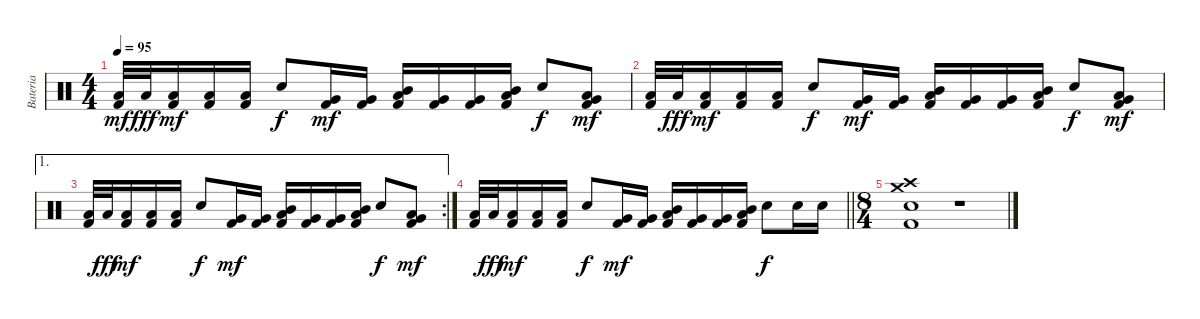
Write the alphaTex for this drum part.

\track ("Bateria" "Bateria") {instrument percussion}
\staff {score}
\articulation defaults
\ts (4 4)
\tempo 95
\clef neutral
\ks c
("Low Floor Tom (hit)" "Kick (hit) 2").32{dy mf} "Low Floor Tom (hit)".32{dy fff} ("Low Floor Tom (hit)" "Kick (hit) 2").16{dy mf} ("Low Floor Tom (hit)" "Kick (hit) 2").16 ("Low Floor Tom (hit)" "Kick (hit) 2").16 "Snare (hit) 2".8{dy f} ("Very Low Tom (hit)" "Kick (hit) 2").16{dy mf} ("Very Low Tom (hit)" "Kick (hit) 2").16 ("Mid Tom (hit)" "Low Tom (hit)" "Kick (hit) 2").16 ("Very Low Tom (hit)" "Kick (hit) 2").16 ("Very Low Tom (hit)" "Kick (hit) 2").16 ("Mid Tom (hit)" "Low Tom (hit)" "Kick (hit) 2").16 "Snare (hit) 2".8{dy f} ("Very Low Tom (hit)" "Low Floor Tom (hit)" "Kick (hit) 2").8{dy mf} |
("Low Floor Tom (hit)" "Kick (hit) 2").32 "Low Floor Tom (hit)".32{dy fff} ("Low Floor Tom (hit)" "Kick (hit) 2").16{dy mf} ("Low Floor Tom (hit)" "Kick (hit) 2").16 ("Low Floor Tom (hit)" "Kick (hit) 2").16 "Snare (hit) 2".8{dy f} ("Very Low Tom (hit)" "Kick (hit) 2").16{dy mf} ("Very Low Tom (hit)" "Kick (hit) 2").16 ("Mid Tom (hit)" "Low Tom (hit)" "Kick (hit) 2").16 ("Very Low Tom (hit)" "Kick (hit) 2").16 ("Very Low Tom (hit)" "Kick (hit) 2").16 ("Mid Tom (hit)" "Low Tom (hit)" "Kick (hit) 2").16 "Snare (hit) 2".8{dy f} ("Very Low Tom (hit)" "Low Floor Tom (hit)" "Kick (hit) 2").8{dy mf} |
\ae 1
\rc 2
("Low Floor Tom (hit)" "Kick (hit) 2").32 "Low Floor Tom (hit)".32{dy fff} ("Low Floor Tom (hit)" "Kick (hit) 2").16{dy mf} ("Low Floor Tom (hit)" "Kick (hit) 2").16 ("Low Floor Tom (hit)" "Kick (hit) 2").16 "Snare (hit) 2".8{dy f} ("Very Low Tom (hit)" "Kick (hit) 2").16{dy mf} ("Very Low Tom (hit)" "Kick (hit) 2").16 ("Mid Tom (hit)" "Low Tom (hit)" "Kick (hit) 2").16 ("Very Low Tom (hit)" "Kick (hit) 2").16 ("Very Low Tom (hit)" "Kick (hit) 2").16 ("Mid Tom (hit)" "Low Tom (hit)" "Kick (hit) 2").16 "Snare (hit) 2".8{dy f} ("Very Low Tom (hit)" "Low Floor Tom (hit)" "Kick (hit) 2").8{dy mf} |
\barLineRight lightlight
("Low Floor Tom (hit)" "Kick (hit) 2").32 "Low Floor Tom (hit)".32{dy fff} ("Low Floor Tom (hit)" "Kick (hit) 2").16{dy mf} ("Low Floor Tom (hit)" "Kick (hit) 2").16 ("Low Floor Tom (hit)" "Kick (hit) 2").16 "Snare (hit) 2".8{dy f} ("Very Low Tom (hit)" "Kick (hit) 2").16{dy mf} ("Very Low Tom (hit)" "Kick (hit) 2").16 ("Mid Tom (hit)" "Low Tom (hit)" "Kick (hit) 2").16 ("Very Low Tom (hit)" "Kick (hit) 2").16 ("Very Low Tom (hit)" "Kick (hit) 2").16 ("Mid Tom (hit)" "Low Tom (hit)" "Kick (hit) 2").16 "Snare (hit) 2".8{dy f} "Snare (hit) 2".16 "Snare (hit) 2".16 |
\ts (8 4)
("Crash high (hit)" "Crash medium (hit)" "Snare (hit) 2" "Kick (hit) 2").1 r.1
